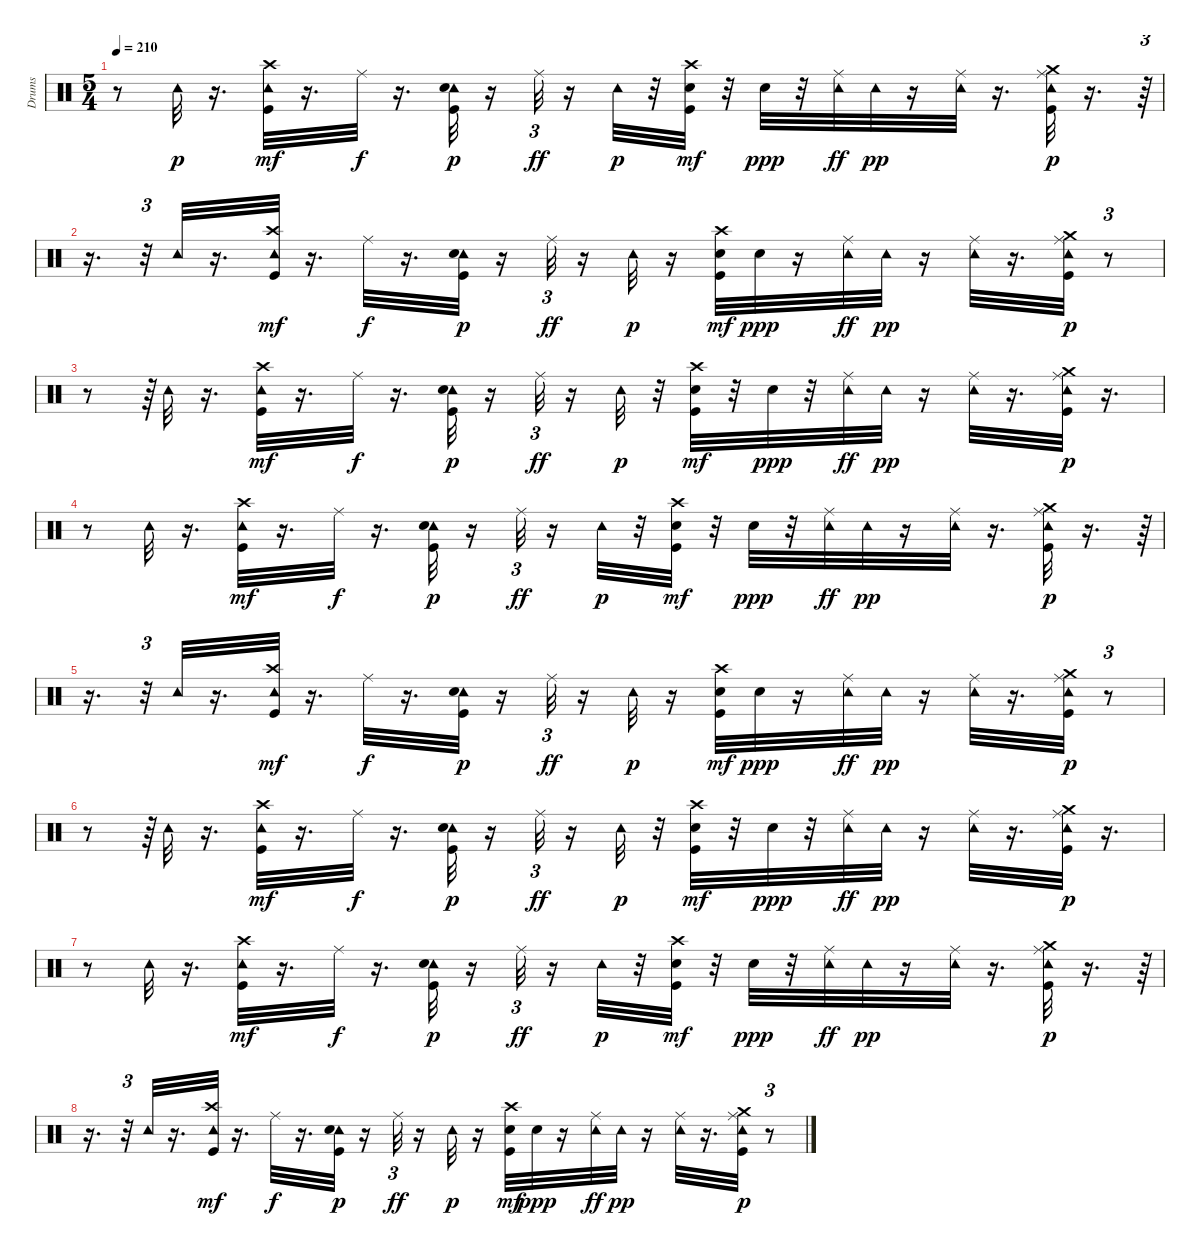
\track ("Drums" "Drums") {instrument percussion}
\staff {score}
\articulation defaults
\ts (5 4)
\tempo 210
\clef neutral
\ks c
r.8{dy p} "Tambourine (hit)".32 r.16{d} ("Tambourine (hit)" "Crash high (hit)" "Kick (hit)").32{dy mf} r.16{d} "Ride (middle)".32{dy f} r.16{d} ("Tambourine (hit)" "Snare (hit) 2" "Kick (hit)").32{dy p} r.16 "Ride (middle)".32{tu (3 2) dy ff} r.16 "Tambourine (hit)".32{dy p} r.32 ("Crash high (hit)" "Kick (hit)" "Snare (hit) 2").32{dy mf} r.32 "Snare (hit)".32{dy ppp} r.32 ("Tambourine (hit)" "Ride (middle)").32{dy ff} "Tambourine (hit)".32{dy pp} r.16 ("Ride (middle)" "Tambourine (hit)").32 r.16{d} ("Crash medium (hit)" "Tambourine (hit)" "Ride (middle)" "Kick (hit)").32{dy p} r.16{d} r.64{tu (3 2)} |
r.16{d} r.32{tu (3 2)} "Tambourine (hit)".32 r.16{d} ("Tambourine (hit)" "Crash high (hit)" "Kick (hit)").32{dy mf} r.16{d} "Ride (middle)".32{dy f} r.16{d} ("Tambourine (hit)" "Snare (hit) 2" "Kick (hit)").32{dy p} r.16 "Ride (middle)".32{tu (3 2) dy ff} r.16 "Tambourine (hit)".32{dy p} r.16 ("Crash high (hit)" "Kick (hit)" "Snare (hit) 2").32{dy mf} "Snare (hit)".32{dy ppp} r.16 ("Tambourine (hit)" "Ride (middle)").32{dy ff} "Tambourine (hit)".32{dy pp} r.16 ("Ride (middle)" "Tambourine (hit)").32 r.16{d} ("Crash medium (hit)" "Tambourine (hit)" "Ride (middle)" "Kick (hit)").32{dy p} r.8{tu (3 2)} |
r.8 r.64{tu (3 2)} "Tambourine (hit)".32 r.16{d} ("Tambourine (hit)" "Crash high (hit)" "Kick (hit)").32{dy mf} r.16{d} "Ride (middle)".32{dy f} r.16{d} ("Tambourine (hit)" "Snare (hit) 2" "Kick (hit)").32{dy p} r.16 "Ride (middle)".32{tu (3 2) dy ff} r.16 "Tambourine (hit)".32{dy p} r.32 ("Crash high (hit)" "Kick (hit)" "Snare (hit) 2").32{dy mf} r.32 "Snare (hit)".32{dy ppp} r.32 ("Tambourine (hit)" "Ride (middle)").32{dy ff} "Tambourine (hit)".32{dy pp} r.16 ("Ride (middle)" "Tambourine (hit)").32 r.16{d} ("Crash medium (hit)" "Tambourine (hit)" "Ride (middle)" "Kick (hit)").32{dy p} r.16{d} |
r.8 "Tambourine (hit)".32 r.16{d} ("Tambourine (hit)" "Crash high (hit)" "Kick (hit)").32{dy mf} r.16{d} "Ride (middle)".32{dy f} r.16{d} ("Tambourine (hit)" "Snare (hit) 2" "Kick (hit)").32{dy p} r.16 "Ride (middle)".32{tu (3 2) dy ff} r.16 "Tambourine (hit)".32{dy p} r.32 ("Crash high (hit)" "Kick (hit)" "Snare (hit) 2").32{dy mf} r.32 "Snare (hit)".32{dy ppp} r.32 ("Tambourine (hit)" "Ride (middle)").32{dy ff} "Tambourine (hit)".32{dy pp} r.16 ("Ride (middle)" "Tambourine (hit)").32 r.16{d} ("Crash medium (hit)" "Tambourine (hit)" "Ride (middle)" "Kick (hit)").32{dy p} r.16{d} r.64{tu (3 2)} |
r.16{d} r.32{tu (3 2)} "Tambourine (hit)".32 r.16{d} ("Tambourine (hit)" "Crash high (hit)" "Kick (hit)").32{dy mf} r.16{d} "Ride (middle)".32{dy f} r.16{d} ("Tambourine (hit)" "Snare (hit) 2" "Kick (hit)").32{dy p} r.16 "Ride (middle)".32{tu (3 2) dy ff} r.16 "Tambourine (hit)".32{dy p} r.16 ("Crash high (hit)" "Kick (hit)" "Snare (hit) 2").32{dy mf} "Snare (hit)".32{dy ppp} r.16 ("Tambourine (hit)" "Ride (middle)").32{dy ff} "Tambourine (hit)".32{dy pp} r.16 ("Ride (middle)" "Tambourine (hit)").32 r.16{d} ("Crash medium (hit)" "Tambourine (hit)" "Ride (middle)" "Kick (hit)").32{dy p} r.8{tu (3 2)} |
r.8 r.64{tu (3 2)} "Tambourine (hit)".32 r.16{d} ("Tambourine (hit)" "Crash high (hit)" "Kick (hit)").32{dy mf} r.16{d} "Ride (middle)".32{dy f} r.16{d} ("Tambourine (hit)" "Snare (hit) 2" "Kick (hit)").32{dy p} r.16 "Ride (middle)".32{tu (3 2) dy ff} r.16 "Tambourine (hit)".32{dy p} r.32 ("Crash high (hit)" "Kick (hit)" "Snare (hit) 2").32{dy mf} r.32 "Snare (hit)".32{dy ppp} r.32 ("Tambourine (hit)" "Ride (middle)").32{dy ff} "Tambourine (hit)".32{dy pp} r.16 ("Ride (middle)" "Tambourine (hit)").32 r.16{d} ("Crash medium (hit)" "Tambourine (hit)" "Ride (middle)" "Kick (hit)").32{dy p} r.16{d} |
r.8 "Tambourine (hit)".32 r.16{d} ("Tambourine (hit)" "Crash high (hit)" "Kick (hit)").32{dy mf} r.16{d} "Ride (middle)".32{dy f} r.16{d} ("Tambourine (hit)" "Snare (hit) 2" "Kick (hit)").32{dy p} r.16 "Ride (middle)".32{tu (3 2) dy ff} r.16 "Tambourine (hit)".32{dy p} r.32 ("Crash high (hit)" "Kick (hit)" "Snare (hit) 2").32{dy mf} r.32 "Snare (hit)".32{dy ppp} r.32 ("Tambourine (hit)" "Ride (middle)").32{dy ff} "Tambourine (hit)".32{dy pp} r.16 ("Ride (middle)" "Tambourine (hit)").32 r.16{d} ("Crash medium (hit)" "Tambourine (hit)" "Ride (middle)" "Kick (hit)").32{dy p} r.16{d} r.64{tu (3 2)} |
r.16{d} r.32{tu (3 2)} "Tambourine (hit)".32 r.16{d} ("Tambourine (hit)" "Crash high (hit)" "Kick (hit)").32{dy mf} r.16{d} "Ride (middle)".32{dy f} r.16{d} ("Tambourine (hit)" "Snare (hit) 2" "Kick (hit)").32{dy p} r.16 "Ride (middle)".32{tu (3 2) dy ff} r.16 "Tambourine (hit)".32{dy p} r.16 ("Crash high (hit)" "Kick (hit)" "Snare (hit) 2").32{dy mf} "Snare (hit)".32{dy ppp} r.16 ("Tambourine (hit)" "Ride (middle)").32{dy ff} "Tambourine (hit)".32{dy pp} r.16 ("Ride (middle)" "Tambourine (hit)").32 r.16{d} ("Crash medium (hit)" "Tambourine (hit)" "Ride (middle)" "Kick (hit)").32{dy p} r.8{tu (3 2)}
